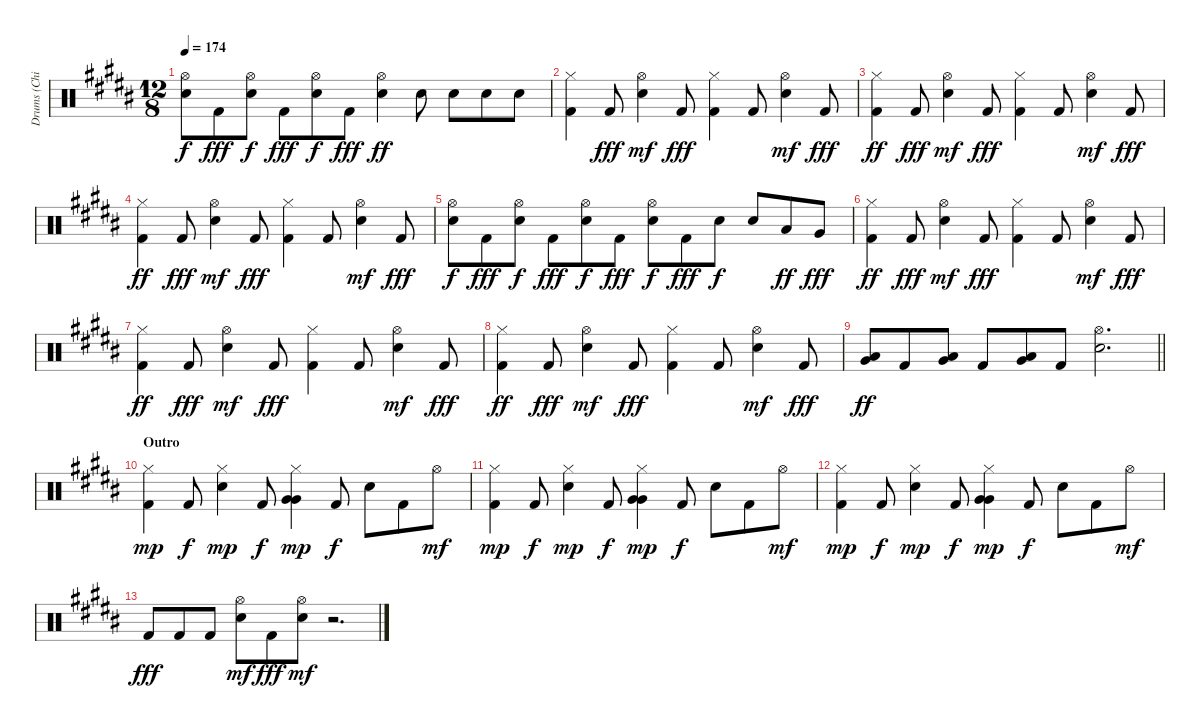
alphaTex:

\track ("Drums (Chinyakov)" "Drums (Chi") {instrument percussion}
\staff {score}
\articulation defaults
\ts (12 8)
\tempo 174
\clef neutral
\ks b
("Electric Snare (hit)" "Hi-Hat (open)").8{dy f} "Kick (hit) 2".8{dy fff} ("Electric Snare (hit)" "Hi-Hat (open)").8{dy f} "Kick (hit) 2".8{dy fff} ("Electric Snare (hit)" "Hi-Hat (open)").8{dy f} "Kick (hit) 2".8{dy fff} ("Electric Snare (hit)" "Hi-Hat (open)").4{dy ff} "Electric Snare (hit)".8 "Electric Snare (hit)".8 "Electric Snare (hit)".8 "Electric Snare (hit)".8 |
("Kick (hit) 2" "Hi-Hat (closed)").4 "Kick (hit) 2".8{dy fff} ("Electric Snare (hit)" "Hi-Hat (open)").4{dy mf} "Kick (hit) 2".8{dy fff} ("Kick (hit) 2" "Hi-Hat (closed)").4 "Kick (hit) 2".8 ("Electric Snare (hit)" "Hi-Hat (open)").4{dy mf} "Kick (hit) 2".8{dy fff} |
("Kick (hit) 2" "Hi-Hat (closed)").4{dy ff} "Kick (hit) 2".8{dy fff} ("Electric Snare (hit)" "Hi-Hat (open)").4{dy mf} "Kick (hit) 2".8{dy fff} ("Kick (hit) 2" "Hi-Hat (closed)").4 "Kick (hit) 2".8 ("Electric Snare (hit)" "Hi-Hat (open)").4{dy mf} "Kick (hit) 2".8{dy fff} |
("Kick (hit) 2" "Hi-Hat (closed)").4{dy ff} "Kick (hit) 2".8{dy fff} ("Electric Snare (hit)" "Hi-Hat (open)").4{dy mf} "Kick (hit) 2".8{dy fff} ("Kick (hit) 2" "Hi-Hat (closed)").4 "Kick (hit) 2".8 ("Electric Snare (hit)" "Hi-Hat (open)").4{dy mf} "Kick (hit) 2".8{dy fff} |
("Electric Snare (hit)" "Hi-Hat (open)").8{dy f} "Kick (hit) 2".8{dy fff} ("Electric Snare (hit)" "Hi-Hat (open)").8{dy f} "Kick (hit) 2".8{dy fff} ("Electric Snare (hit)" "Hi-Hat (open)").8{dy f} "Kick (hit) 2".8{dy fff} ("Electric Snare (hit)" "Hi-Hat (open)").8{dy f} "Kick (hit) 2".8{dy fff} "Electric Snare (hit)".8{dy f} "Electric Snare (hit)".8 "Low Tom (hit)".8{dy ff} "Very Low Tom (hit)".8{dy fff} |
("Kick (hit) 2" "Hi-Hat (closed)").4{dy ff} "Kick (hit) 2".8{dy fff} ("Electric Snare (hit)" "Hi-Hat (open)").4{dy mf} "Kick (hit) 2".8{dy fff} ("Kick (hit) 2" "Hi-Hat (closed)").4 "Kick (hit) 2".8 ("Electric Snare (hit)" "Hi-Hat (open)").4{dy mf} "Kick (hit) 2".8{dy fff} |
("Kick (hit) 2" "Hi-Hat (closed)").4{dy ff} "Kick (hit) 2".8{dy fff} ("Electric Snare (hit)" "Hi-Hat (open)").4{dy mf} "Kick (hit) 2".8{dy fff} ("Kick (hit) 2" "Hi-Hat (closed)").4 "Kick (hit) 2".8 ("Electric Snare (hit)" "Hi-Hat (open)").4{dy mf} "Kick (hit) 2".8{dy fff} |
("Kick (hit) 2" "Hi-Hat (closed)").4{dy ff} "Kick (hit) 2".8{dy fff} ("Electric Snare (hit)" "Hi-Hat (open)").4{dy mf} "Kick (hit) 2".8{dy fff} ("Kick (hit) 2" "Hi-Hat (closed)").4 "Kick (hit) 2".8 ("Electric Snare (hit)" "Hi-Hat (open)").4{dy mf} "Kick (hit) 2".8{dy fff} |
\barLineRight lightlight
("Low Floor Tom (hit)" "Very Low Tom (hit)").8{bd 120 dy ff} "Kick (hit) 2".8 ("Low Floor Tom (hit)" "Very Low Tom (hit)").8{bd 120} "Kick (hit) 2".8 ("Low Floor Tom (hit)" "Very Low Tom (hit)").8{bd 120} "Kick (hit) 2".8 ("Electric Snare (hit)" "Hi-Hat (open)").2{d} |
\section ("" "Outro")
("Kick (hit) 2" "Hi-Hat (closed)").4{dy mp} "Kick (hit) 2".8{dy f} ("Electric Snare (hit)" "Hi-Hat (closed)").4{dy mp} "Kick (hit) 2".8{dy f} ("Very Low Tom (hit)" "Very Low Tom (hit)" "Hi-Hat (closed)").4{dy mp} "Kick (hit) 2".8{dy f} "Electric Snare (hit)".8 "Kick (hit) 2".8 "Hi-Hat (open)".8{dy mf} |
("Kick (hit) 2" "Hi-Hat (closed)").4{dy mp} "Kick (hit) 2".8{dy f} ("Electric Snare (hit)" "Hi-Hat (closed)").4{dy mp} "Kick (hit) 2".8{dy f} ("Very Low Tom (hit)" "Very Low Tom (hit)" "Hi-Hat (closed)").4{dy mp} "Kick (hit) 2".8{dy f} "Electric Snare (hit)".8 "Kick (hit) 2".8 "Hi-Hat (open)".8{dy mf} |
("Kick (hit) 2" "Hi-Hat (closed)").4{dy mp} "Kick (hit) 2".8{dy f} ("Electric Snare (hit)" "Hi-Hat (closed)").4{dy mp} "Kick (hit) 2".8{dy f} ("Very Low Tom (hit)" "Very Low Tom (hit)" "Hi-Hat (closed)").4{dy mp} "Kick (hit) 2".8{dy f} "Electric Snare (hit)".8 "Kick (hit) 2".8 "Hi-Hat (open)".8{dy mf} |
"Kick (hit) 2".8{dy fff} "Kick (hit) 2".8 "Kick (hit) 2".8 ("Electric Snare (hit)" "Hi-Hat (open)").8{dy mf} "Kick (hit) 2".8{dy fff} ("Electric Snare (hit)" "Hi-Hat (open)").8{dy mf} r.2{d}
